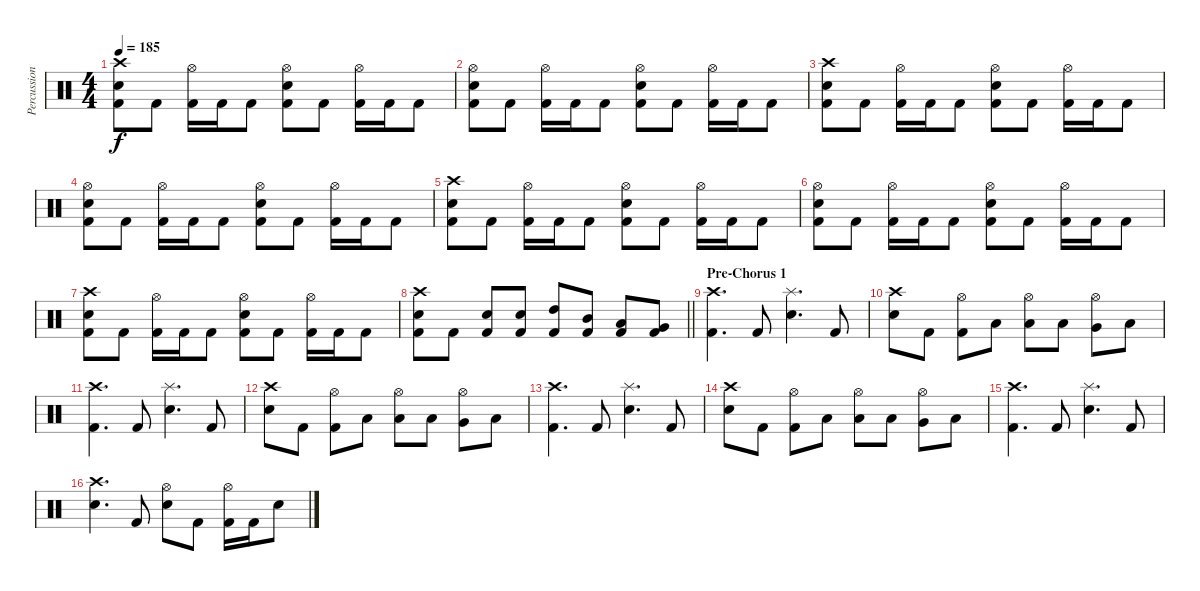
\track ("Percussion" "Percussion") {instrument percussion}
\staff {score}
\articulation defaults
\ts (4 4)
\tempo 185
\clef neutral
\ks c
("Crash high (hit)" "Snare (hit) 2" "Kick (hit) 2").8{dy f} "Kick (hit) 2".8 ("Hi-Hat (open)" "Kick (hit) 2").16 "Kick (hit) 2".16 "Kick (hit) 2".8 ("Hi-Hat (open)" "Snare (hit) 2" "Kick (hit) 2").8 "Kick (hit) 2".8 ("Hi-Hat (open)" "Kick (hit) 2").16 "Kick (hit) 2".16 "Kick (hit) 2".8 |
("Hi-Hat (open)" "Snare (hit) 2" "Kick (hit) 2").8 "Kick (hit) 2".8 ("Hi-Hat (open)" "Kick (hit) 2").16 "Kick (hit) 2".16 "Kick (hit) 2".8 ("Hi-Hat (open)" "Snare (hit) 2" "Kick (hit) 2").8 "Kick (hit) 2".8 ("Hi-Hat (open)" "Kick (hit) 2").16 "Kick (hit) 2".16 "Kick (hit) 2".8 |
("Crash high (hit)" "Snare (hit) 2" "Kick (hit) 2").8 "Kick (hit) 2".8 ("Hi-Hat (open)" "Kick (hit) 2").16 "Kick (hit) 2".16 "Kick (hit) 2".8 ("Hi-Hat (open)" "Snare (hit) 2" "Kick (hit) 2").8 "Kick (hit) 2".8 ("Hi-Hat (open)" "Kick (hit) 2").16 "Kick (hit) 2".16 "Kick (hit) 2".8 |
("Hi-Hat (open)" "Snare (hit) 2" "Kick (hit) 2").8 "Kick (hit) 2".8 ("Hi-Hat (open)" "Kick (hit) 2").16 "Kick (hit) 2".16 "Kick (hit) 2".8 ("Hi-Hat (open)" "Snare (hit) 2" "Kick (hit) 2").8 "Kick (hit) 2".8 ("Hi-Hat (open)" "Kick (hit) 2").16 "Kick (hit) 2".16 "Kick (hit) 2".8 |
("Crash high (hit)" "Snare (hit) 2" "Kick (hit) 2").8 "Kick (hit) 2".8 ("Hi-Hat (open)" "Kick (hit) 2").16 "Kick (hit) 2".16 "Kick (hit) 2".8 ("Hi-Hat (open)" "Snare (hit) 2" "Kick (hit) 2").8 "Kick (hit) 2".8 ("Hi-Hat (open)" "Kick (hit) 2").16 "Kick (hit) 2".16 "Kick (hit) 2".8 |
("Hi-Hat (open)" "Snare (hit) 2" "Kick (hit) 2").8 "Kick (hit) 2".8 ("Hi-Hat (open)" "Kick (hit) 2").16 "Kick (hit) 2".16 "Kick (hit) 2".8 ("Hi-Hat (open)" "Snare (hit) 2" "Kick (hit) 2").8 "Kick (hit) 2".8 ("Hi-Hat (open)" "Kick (hit) 2").16 "Kick (hit) 2".16 "Kick (hit) 2".8 |
("Crash high (hit)" "Snare (hit) 2" "Kick (hit) 2").8 "Kick (hit) 2".8 ("Hi-Hat (open)" "Kick (hit) 2").16 "Kick (hit) 2".16 "Kick (hit) 2".8 ("Hi-Hat (open)" "Snare (hit) 2" "Kick (hit) 2").8 "Kick (hit) 2".8 ("Hi-Hat (open)" "Kick (hit) 2").16 "Kick (hit) 2".16 "Kick (hit) 2".8 |
\barLineRight lightlight
("Crash high (hit)" "Snare (hit) 2" "Kick (hit) 2").8 "Kick (hit) 2".8 ("Snare (hit) 2" "Kick (hit) 2").8 ("Snare (hit) 2" "Kick (hit) 2").8 ("High Tom (hit)" "Kick (hit) 2").8 ("Mid Tom (hit)" "Kick (hit) 2").8 ("Low Tom (hit)" "Kick (hit) 2").8 ("Very Low Tom (hit)" "Kick (hit) 2").8 |
\section ("" "Pre-Chorus 1")
("Crash high (hit)" "Kick (hit) 2").4{d} "Kick (hit) 2".8 ("Splash (hit)" "Snare (hit) 2").4{d} "Kick (hit) 2".8 |
("Crash high (hit)" "Snare (hit) 2").8 "Kick (hit) 2".8 ("Hi-Hat (open)" "Kick (hit) 2").8 "Low Tom (hit)".8 ("Low Floor Tom (hit)" "Hi-Hat (open)").8 "Low Tom (hit)".8 ("Very Low Tom (hit)" "Hi-Hat (open)").8 "Low Floor Tom (hit)".8 |
("Crash high (hit)" "Kick (hit) 2").4{d} "Kick (hit) 2".8 ("Splash (hit)" "Snare (hit) 2").4{d} "Kick (hit) 2".8 |
("Crash high (hit)" "Snare (hit) 2").8 "Kick (hit) 2".8 ("Hi-Hat (open)" "Kick (hit) 2").8 "Low Tom (hit)".8 ("Low Floor Tom (hit)" "Hi-Hat (open)").8 "Low Tom (hit)".8 ("Very Low Tom (hit)" "Hi-Hat (open)").8 "Low Floor Tom (hit)".8 |
("Crash high (hit)" "Kick (hit) 2").4{d} "Kick (hit) 2".8 ("Splash (hit)" "Snare (hit) 2").4{d} "Kick (hit) 2".8 |
("Crash high (hit)" "Snare (hit) 2").8 "Kick (hit) 2".8 ("Hi-Hat (open)" "Kick (hit) 2").8 "Low Tom (hit)".8 ("Low Floor Tom (hit)" "Hi-Hat (open)").8 "Low Tom (hit)".8 ("Very Low Tom (hit)" "Hi-Hat (open)").8 "Low Floor Tom (hit)".8 |
("Crash high (hit)" "Kick (hit) 2").4{d} "Kick (hit) 2".8 ("Splash (hit)" "Snare (hit) 2").4{d} "Kick (hit) 2".8 |
("Crash high (hit)" "Snare (hit) 2").4{d} "Kick (hit) 2".8 ("Hi-Hat (open)" "Snare (hit) 2").8 "Kick (hit) 2".8 ("Hi-Hat (open)" "Kick (hit) 2").16 "Kick (hit) 2".16 "Snare (hit) 2".8
